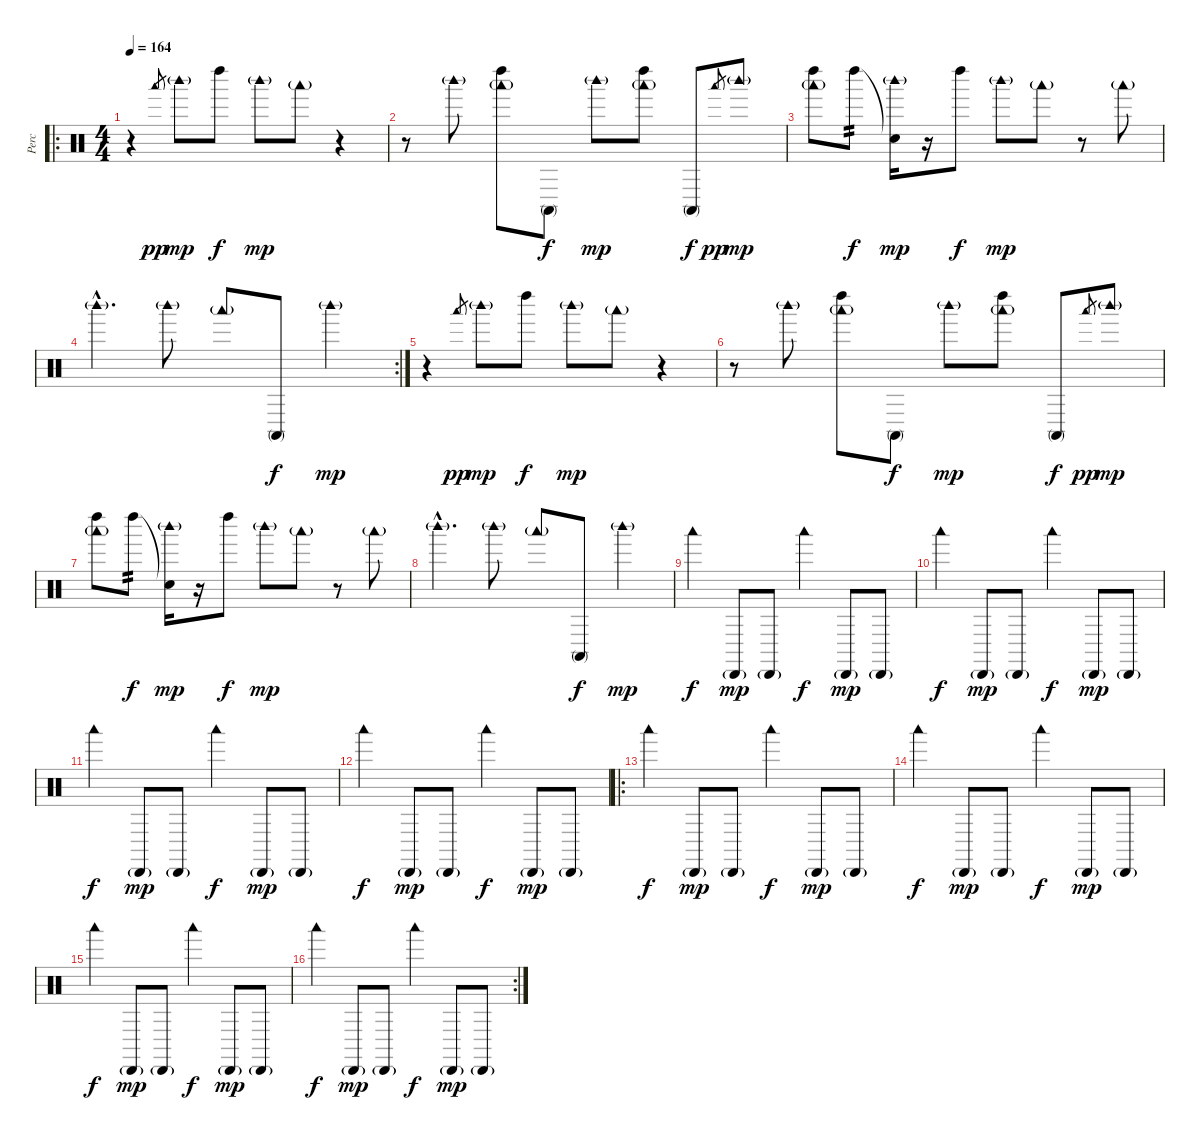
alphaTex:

\track ("Perc" "Perc") {instrument percussion}
\staff {score}
\articulation defaults
\ro
\ts (4 4)
\tempo 164
\clef neutral
\ks c
r.4{dy mp} "Woodblock low (hit)".8{gr dy pp} "Woodblock high (hit)"{g}.8{dy mp} "Left Maraca (hit)".8{dy f} "Woodblock high (hit)"{g}.8{dy mp} "Woodblock low (hit)"{g}.8 r.4 |
r.8 "Woodblock high (hit)"{g}.8 ("Left Maraca (hit)" "Woodblock low (hit)"{g}).8 "Conga high (mute)".8{dy f} "Woodblock high (hit)"{g}.8{dy mp} ("Left Maraca (hit)" "Woodblock low (hit)"{g}).8 "Conga high (mute)".8{dy f} "Woodblock low (hit)".8{gr dy pp} "Woodblock high (hit)"{g}.8{dy mp} |
("Left Maraca (hit)" "Woodblock low (hit)"{g}).8 "Left Maraca (hit)".8{tp 2 dy f} ("Snare (hit)"{t} "Woodblock high (hit)"{g}).16{dy mp} r.16 "Left Maraca (hit)".8{dy f} "Woodblock high (hit)"{g}.8{dy mp} "Woodblock low (hit)"{g}.8 r.8 "Woodblock low (hit)"{g}.8 |
\rc 2 "Woodblock high (hit)"{g hac}.4{d} "Woodblock high (hit)"{g}.8 "Woodblock low (hit)"{g}.8 "Conga high (mute)".8{dy f} "Woodblock high (hit)"{g}.4{dy mp}
|
r.4 "Woodblock low (hit)".8{gr dy pp} "Woodblock high (hit)"{g}.8{dy mp} "Left Maraca (hit)".8{dy f} "Woodblock high (hit)"{g}.8{dy mp} "Woodblock low (hit)"{g}.8 r.4 |
r.8 "Woodblock high (hit)"{g}.8 ("Left Maraca (hit)" "Woodblock low (hit)"{g}).8 "Conga high (mute)".8{dy f} "Woodblock high (hit)"{g}.8{dy mp} ("Left Maraca (hit)" "Woodblock low (hit)"{g}).8 "Conga high (mute)".8{dy f} "Woodblock low (hit)".8{gr dy pp} "Woodblock high (hit)"{g}.8{dy mp} |
("Left Maraca (hit)" "Woodblock low (hit)"{g}).8 "Left Maraca (hit)".8{tp 2 dy f} ("Snare (hit)"{t} "Woodblock high (hit)"{g}).16{dy mp} r.16 "Left Maraca (hit)".8{dy f} "Woodblock high (hit)"{g}.8{dy mp} "Woodblock low (hit)"{g}.8 r.8 "Woodblock low (hit)"{g}.8 |
"Woodblock high (hit)"{g hac}.4{d} "Woodblock high (hit)"{g}.8 "Woodblock low (hit)"{g}.8 "Conga high (mute)".8{dy f} "Woodblock high (hit)"{g}.4{dy mp} |
"Woodblock low (hit)".4{dy f} "Cabasa (hit)"{g}.8{dy mp} "Cabasa (hit)"{g}.8 "Woodblock low (hit)".4{dy f} "Cabasa (hit)"{g}.8{dy mp} "Cabasa (hit)"{g}.8 |
"Woodblock low (hit)".4{dy f} "Cabasa (hit)"{g}.8{dy mp} "Cabasa (hit)"{g}.8 "Woodblock low (hit)".4{dy f} "Cabasa (hit)"{g}.8{dy mp} "Cabasa (hit)"{g}.8 |
"Woodblock low (hit)".4{dy f} "Cabasa (hit)"{g}.8{dy mp} "Cabasa (hit)"{g}.8 "Woodblock low (hit)".4{dy f} "Cabasa (hit)"{g}.8{dy mp} "Cabasa (hit)"{g}.8 |
"Woodblock low (hit)".4{dy f} "Cabasa (hit)"{g}.8{dy mp} "Cabasa (hit)"{g}.8 "Woodblock low (hit)".4{dy f} "Cabasa (hit)"{g}.8{dy mp} "Cabasa (hit)"{g}.8 |
\ro "Woodblock low (hit)".4{dy f} "Cabasa (hit)"{g}.8{dy mp} "Cabasa (hit)"{g}.8 "Woodblock low (hit)".4{dy f} "Cabasa (hit)"{g}.8{dy mp} "Cabasa (hit)"{g}.8
|
"Woodblock low (hit)".4{dy f} "Cabasa (hit)"{g}.8{dy mp} "Cabasa (hit)"{g}.8 "Woodblock low (hit)".4{dy f} "Cabasa (hit)"{g}.8{dy mp} "Cabasa (hit)"{g}.8 |
"Woodblock low (hit)".4{dy f} "Cabasa (hit)"{g}.8{dy mp} "Cabasa (hit)"{g}.8 "Woodblock low (hit)".4{dy f} "Cabasa (hit)"{g}.8{dy mp} "Cabasa (hit)"{g}.8 |
\rc 2 "Woodblock low (hit)".4{dy f} "Cabasa (hit)"{g}.8{dy mp} "Cabasa (hit)"{g}.8 "Woodblock low (hit)".4{dy f} "Cabasa (hit)"{g}.8{dy mp} "Cabasa (hit)"{g}.8
